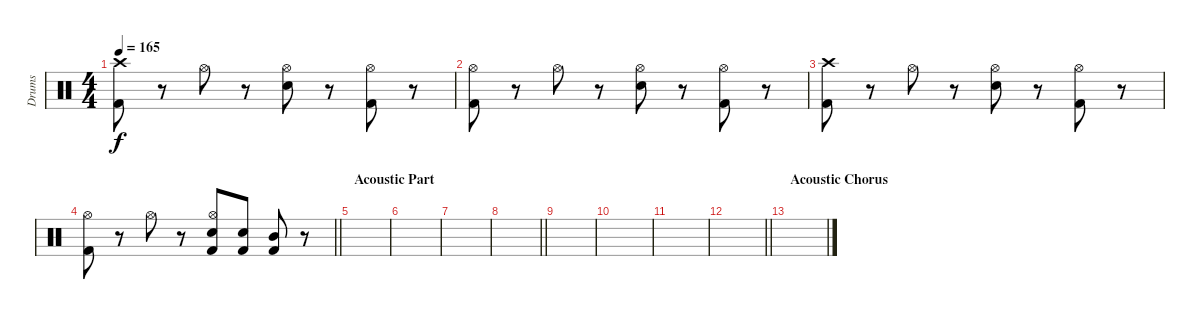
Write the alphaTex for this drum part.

\track ("Drums" "Drums") {instrument percussion}
\staff {score}
\articulation defaults
\ts (4 4)
\tempo 165
\clef neutral
\ks c
("Crash high (hit)" "Kick (hit) 2").8{dy f} r.8 "Hi-Hat (open)".8 r.8 ("Hi-Hat (open)" "Electric Snare (hit)").8 r.8 ("Hi-Hat (open)" "Kick (hit) 2").8 r.8 |
("Hi-Hat (open)" "Kick (hit) 2").8 r.8 "Hi-Hat (open)".8 r.8 ("Hi-Hat (open)" "Electric Snare (hit)").8 r.8 ("Hi-Hat (open)" "Kick (hit) 2").8 r.8 |
("Crash high (hit)" "Kick (hit) 2").8 r.8 "Hi-Hat (open)".8 r.8 ("Hi-Hat (open)" "Electric Snare (hit)").8 r.8 ("Hi-Hat (open)" "Kick (hit) 2").8 r.8 |
\barLineRight lightlight
("Hi-Hat (open)" "Kick (hit) 2").8 r.8 "Hi-Hat (open)".8 r.8 ("Hi-Hat (open)" "Electric Snare (hit)" "Kick (hit) 2").8 ("Electric Snare (hit)" "Kick (hit) 2").8 ("Mid Tom (hit)" "Kick (hit) 2").8 r.8 |
\section ("" "Acoustic Part")
|
|
|
\barLineRight lightlight
|
|
|
|
\barLineRight lightlight
|
\section ("" "Acoustic Chorus")
